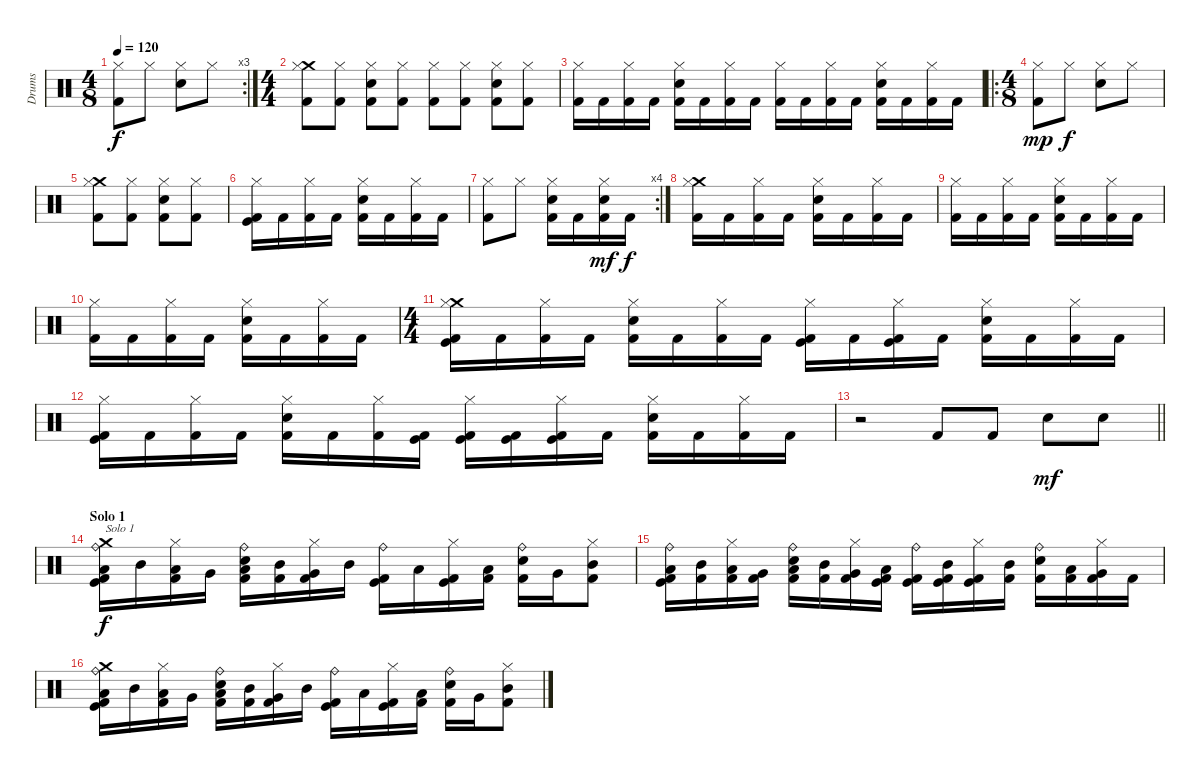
\track ("Drums" "Drums") {instrument percussion}
\staff {score}
\articulation defaults
\rc 3
\ts (4 8)
\tempo 120
\clef neutral
\ks c
("Hi-Hat (closed)" "Kick (hit) 2").8{dy f} "Hi-Hat (closed)".8 ("Hi-Hat (closed)" "Electric Snare (hit)").8 "Hi-Hat (closed)".8 |
\ts (4 4)
("Crash medium (hit)" "Hi-Hat (closed)" "Kick (hit) 2").8 ("Hi-Hat (closed)" "Kick (hit) 2").8 ("Hi-Hat (closed)" "Electric Snare (hit)" "Kick (hit) 2").8 ("Hi-Hat (closed)" "Kick (hit) 2").8 ("Hi-Hat (closed)" "Kick (hit) 2").8 ("Hi-Hat (closed)" "Kick (hit) 2").8 ("Hi-Hat (closed)" "Electric Snare (hit)" "Kick (hit) 2").8 ("Hi-Hat (closed)" "Kick (hit) 2").8 |
("Hi-Hat (closed)" "Kick (hit) 2").16 "Kick (hit) 2".16 ("Hi-Hat (closed)" "Kick (hit) 2").16 "Kick (hit) 2".16 ("Hi-Hat (closed)" "Electric Snare (hit)" "Kick (hit) 2").16 "Kick (hit) 2".16 ("Hi-Hat (closed)" "Kick (hit) 2").16 "Kick (hit) 2".16 ("Hi-Hat (closed)" "Kick (hit) 2").16 "Kick (hit) 2".16 ("Hi-Hat (closed)" "Kick (hit) 2").16 "Kick (hit) 2".16 ("Hi-Hat (closed)" "Electric Snare (hit)" "Kick (hit) 2").16 "Kick (hit) 2".16 ("Hi-Hat (closed)" "Kick (hit) 2").16 "Kick (hit) 2".16 |
\ro
\ts (4 8)
("Hi-Hat (closed)" "Kick (hit) 2").8{dy mp} "Hi-Hat (closed)".8{dy f} ("Hi-Hat (closed)" "Electric Snare (hit)").8 "Hi-Hat (closed)".8 |
("Crash medium (hit)" "Hi-Hat (closed)" "Kick (hit) 2").8 ("Hi-Hat (closed)" "Kick (hit) 2").8 ("Hi-Hat (closed)" "Electric Snare (hit)" "Kick (hit) 2").8 ("Hi-Hat (closed)" "Kick (hit) 2").8 |
("Hi-Hat (closed)" "Kick (hit)" "Kick (hit) 2").16 "Kick (hit) 2".16 ("Hi-Hat (closed)" "Kick (hit) 2").16 "Kick (hit) 2".16 ("Hi-Hat (closed)" "Electric Snare (hit)" "Kick (hit) 2").16 "Kick (hit) 2".16 ("Hi-Hat (closed)" "Kick (hit) 2").16 "Kick (hit) 2".16 |
\rc 4
("Hi-Hat (closed)" "Kick (hit) 2").8 "Hi-Hat (closed)".8 ("Hi-Hat (closed)" "Electric Snare (hit)" "Kick (hit) 2").16 "Kick (hit) 2".16 ("Hi-Hat (closed)" "Electric Snare (hit)" "Kick (hit) 2").16{dy mf} "Kick (hit) 2".16{dy f} |
("Crash medium (hit)" "Hi-Hat (closed)" "Kick (hit) 2").16 "Kick (hit) 2".16 ("Hi-Hat (closed)" "Kick (hit) 2").16 "Kick (hit) 2".16 ("Hi-Hat (closed)" "Electric Snare (hit)" "Kick (hit) 2").16 "Kick (hit) 2".16 ("Hi-Hat (closed)" "Kick (hit) 2").16 "Kick (hit) 2".16 |
("Hi-Hat (closed)" "Kick (hit) 2").16 "Kick (hit) 2".16 ("Hi-Hat (closed)" "Kick (hit) 2").16 "Kick (hit) 2".16 ("Hi-Hat (closed)" "Electric Snare (hit)" "Kick (hit) 2").16 "Kick (hit) 2".16 ("Hi-Hat (closed)" "Kick (hit) 2").16 "Kick (hit) 2".16 |
("Hi-Hat (closed)" "Kick (hit) 2").16 "Kick (hit) 2".16 ("Hi-Hat (closed)" "Kick (hit) 2").16 "Kick (hit) 2".16 ("Hi-Hat (closed)" "Electric Snare (hit)" "Kick (hit) 2").16 "Kick (hit) 2".16 ("Hi-Hat (closed)" "Kick (hit) 2").16 "Kick (hit) 2".16 |
\ts (4 4)
("Crash medium (hit)" "Hi-Hat (closed)" "Kick (hit)" "Kick (hit) 2").16 "Kick (hit) 2".16 ("Hi-Hat (closed)" "Kick (hit) 2").16 "Kick (hit) 2".16 ("Hi-Hat (closed)" "Electric Snare (hit)" "Kick (hit) 2").16 "Kick (hit) 2".16 ("Hi-Hat (closed)" "Kick (hit) 2").16 "Kick (hit) 2".16 ("Hi-Hat (closed)" "Kick (hit)" "Kick (hit) 2").16 "Kick (hit) 2".16 ("Hi-Hat (closed)" "Kick (hit)" "Kick (hit) 2").16 "Kick (hit) 2".16 ("Hi-Hat (closed)" "Electric Snare (hit)" "Kick (hit) 2").16 "Kick (hit) 2".16 ("Hi-Hat (closed)" "Kick (hit) 2").16 "Kick (hit) 2".16 |
("Hi-Hat (closed)" "Kick (hit)" "Kick (hit) 2").16 "Kick (hit) 2".16 ("Hi-Hat (closed)" "Kick (hit) 2").16 "Kick (hit) 2".16 ("Hi-Hat (closed)" "Electric Snare (hit)" "Kick (hit) 2").16 "Kick (hit) 2".16 ("Hi-Hat (closed)" "Kick (hit) 2").16 ("Kick (hit)" "Kick (hit) 2").16 ("Hi-Hat (closed)" "Kick (hit)" "Kick (hit) 2").16 ("Kick (hit)" "Kick (hit) 2").16 ("Hi-Hat (closed)" "Kick (hit)" "Kick (hit) 2").16 "Kick (hit) 2".16 ("Hi-Hat (closed)" "Electric Snare (hit)" "Kick (hit) 2").16 "Kick (hit) 2".16 ("Hi-Hat (closed)" "Kick (hit) 2").16 "Kick (hit) 2".16 |
\barLineRight lightlight
r.2 "Kick (hit) 2".8 "Kick (hit) 2".8 "Electric Snare (hit)".8{dy mf} "Electric Snare (hit)".8 |
\section ("" "Solo 1")
("Crash medium (hit)" "Ride (bell)" "Low Tom (hit)" "Kick (hit)" "Kick (hit) 2").16{txt "Solo 1" dy f} "Mid Tom (hit)".16 ("Hi-Hat (closed)" "Low Tom (hit)" "Kick (hit) 2").16 "Very Low Tom (hit)".16 ("Ride (bell)" "Low Tom (hit)" "Electric Snare (hit)" "Kick (hit) 2").16 ("Mid Tom (hit)" "Kick (hit) 2").16 ("Hi-Hat (closed)" "Very Low Tom (hit)" "Kick (hit) 2").16 "Mid Tom (hit)".16 ("Ride (bell)" "Kick (hit)" "Kick (hit) 2").16 "Low Tom (hit)".16 ("Hi-Hat (closed)" "Kick (hit)" "Kick (hit) 2").16 ("Low Tom (hit)" "Kick (hit) 2").16 ("Ride (bell)" "Electric Snare (hit)" "Kick (hit) 2").16 "Very Low Tom (hit)".16 ("Hi-Hat (closed)" "Mid Tom (hit)" "Kick (hit) 2").8 |
("Ride (bell)" "Low Tom (hit)" "Kick (hit)" "Kick (hit) 2").16 ("Mid Tom (hit)" "Kick (hit) 2").16 ("Hi-Hat (closed)" "Low Tom (hit)" "Kick (hit) 2").16 ("Very Low Tom (hit)" "Kick (hit) 2").16 ("Ride (bell)" "Low Tom (hit)" "Electric Snare (hit)" "Kick (hit) 2").16 ("Mid Tom (hit)" "Kick (hit) 2").16 ("Hi-Hat (closed)" "Very Low Tom (hit)" "Kick (hit) 2").16 ("Low Tom (hit)" "Kick (hit)" "Kick (hit) 2").16 ("Ride (bell)" "Kick (hit)" "Kick (hit) 2").16 ("Mid Tom (hit)" "Kick (hit)" "Kick (hit) 2").16 ("Hi-Hat (closed)" "Kick (hit)" "Kick (hit) 2").16 ("Mid Tom (hit)" "Kick (hit) 2").16 ("Ride (bell)" "Electric Snare (hit)" "Kick (hit) 2").16 ("Low Tom (hit)" "Kick (hit) 2").16 ("Hi-Hat (closed)" "Very Low Tom (hit)" "Kick (hit) 2").16 "Kick (hit) 2".16 |
("Crash medium (hit)" "Ride (bell)" "Low Tom (hit)" "Kick (hit)" "Kick (hit) 2").16 "Mid Tom (hit)".16 ("Hi-Hat (closed)" "Low Tom (hit)" "Kick (hit) 2").16 "Very Low Tom (hit)".16 ("Ride (bell)" "Low Tom (hit)" "Electric Snare (hit)" "Kick (hit) 2").16 ("Mid Tom (hit)" "Kick (hit) 2").16 ("Hi-Hat (closed)" "Very Low Tom (hit)" "Kick (hit) 2").16 "Mid Tom (hit)".16 ("Ride (bell)" "Kick (hit)" "Kick (hit) 2").16 "Low Tom (hit)".16 ("Hi-Hat (closed)" "Kick (hit)" "Kick (hit) 2").16 ("Low Tom (hit)" "Kick (hit) 2").16 ("Ride (bell)" "Electric Snare (hit)" "Kick (hit) 2").16 "Very Low Tom (hit)".16 ("Hi-Hat (closed)" "Mid Tom (hit)" "Kick (hit) 2").8
